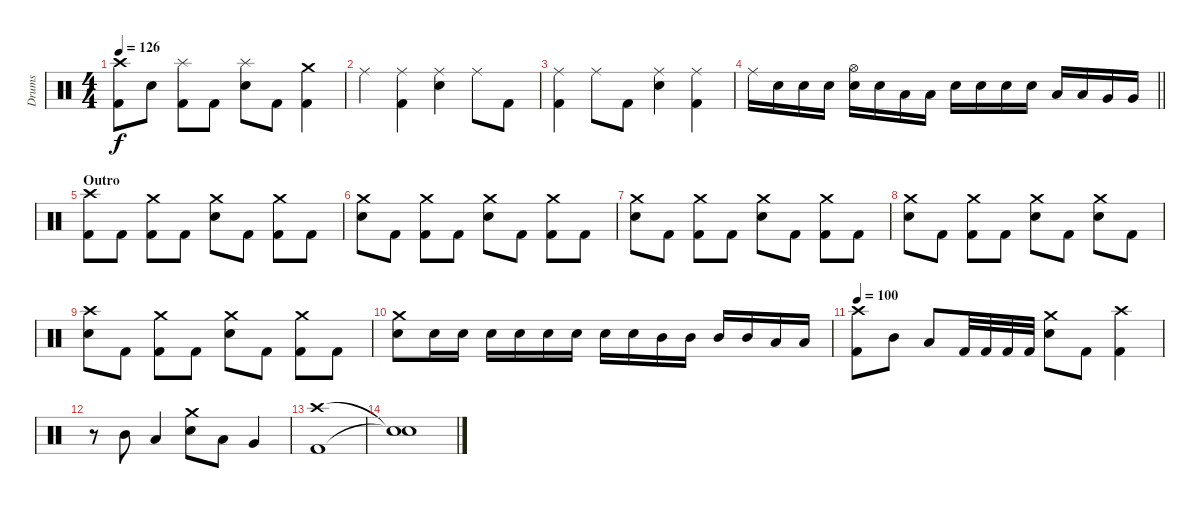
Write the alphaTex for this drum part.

\track ("Drums" "Drums") {instrument percussion}
\staff {score}
\articulation defaults
\ts (4 4)
\tempo 126
\clef neutral
\ks c
("Crash high (hit)" "Kick (hit) 2").8{dy f} "Snare (hit) 2".8 ("Splash (hit)" "Kick (hit) 2").8 "Kick (hit) 2".8 ("Splash (hit)" "Snare (hit) 2").8 "Kick (hit) 2".8 ("Crash medium (hit)" "Kick (hit) 2").4 |
"Ride (middle)".4 ("Ride (middle)" "Kick (hit) 2").4 ("Ride (middle)" "Snare (hit) 2").4 "Ride (middle)".8 "Kick (hit) 2".8 |
("Ride (middle)" "Kick (hit) 2").4 "Ride (middle)".8 "Kick (hit) 2".8 ("Ride (middle)" "Snare (hit) 2").4 ("Ride (middle)" "Kick (hit) 2").4 |
\barLineRight lightlight "Ride (middle)".16 "Snare (hit) 2".16 "Snare (hit) 2".16 "Snare (hit) 2".16
("Hi-Hat (open)" "Snare (hit) 2").16 "Snare (hit) 2".16 "Low Tom (hit)".16 "Low Tom (hit)".16 "Snare (hit) 2".16 "Snare (hit) 2".16 "Snare (hit) 2".16 "Snare (hit) 2".16 "Low Tom (hit)".16 "Low Tom (hit)".16 "Very Low Tom (hit)".16 "Very Low Tom (hit)".16 |
\section ("" "Outro")
("Crash high (hit)" "Kick (hit) 2").8 "Kick (hit) 2".8 ("Crash medium (hit)" "Kick (hit) 2").8 "Kick (hit) 2".8 ("Crash medium (hit)" "Snare (hit) 2").8 "Kick (hit) 2".8 ("Crash medium (hit)" "Kick (hit) 2").8 "Kick (hit) 2".8 |
("Crash medium (hit)" "Snare (hit) 2").8 "Kick (hit) 2".8 ("Crash medium (hit)" "Kick (hit) 2").8 "Kick (hit) 2".8 ("Crash medium (hit)" "Snare (hit) 2").8 "Kick (hit) 2".8 ("Crash medium (hit)" "Kick (hit) 2").8 "Kick (hit) 2".8 |
("Crash medium (hit)" "Snare (hit) 2").8 "Kick (hit) 2".8 ("Crash medium (hit)" "Kick (hit) 2").8 "Kick (hit) 2".8 ("Crash medium (hit)" "Snare (hit) 2").8 "Kick (hit) 2".8 ("Crash medium (hit)" "Kick (hit) 2").8 "Kick (hit) 2".8 |
("Crash medium (hit)" "Snare (hit) 2").8 "Kick (hit) 2".8 ("Crash medium (hit)" "Kick (hit) 2").8 "Kick (hit) 2".8 ("Crash medium (hit)" "Snare (hit) 2").8 "Kick (hit) 2".8 ("Crash medium (hit)" "Snare (hit) 2").8 "Kick (hit) 2".8 |
("Crash high (hit)" "Snare (hit) 2").8 "Kick (hit) 2".8 ("Crash medium (hit)" "Kick (hit) 2").8 "Kick (hit) 2".8 ("Crash medium (hit)" "Snare (hit) 2").8 "Kick (hit) 2".8 ("Crash medium (hit)" "Kick (hit) 2").8 "Kick (hit) 2".8 |
("Crash medium (hit)" "Snare (hit) 2").8 "Snare (hit) 2".16 "Snare (hit) 2".16 "Snare (hit) 2".16 "Snare (hit) 2".16 "Snare (hit) 2".16 "Snare (hit) 2".16 "Snare (hit) 2".16 "Snare (hit) 2".16 "Mid Tom (hit)".16 "Mid Tom (hit)".16 "Mid Tom (hit)".16 "Mid Tom (hit)".16 "Low Tom (hit)".16 "Low Tom (hit)".16 |
\tempo 100
("Crash high (hit)" "Kick (hit) 2").8 "Mid Tom (hit)".8 "Low Tom (hit)".8 "Kick (hit) 2".32 "Kick (hit) 2".32 "Kick (hit) 2".32 "Kick (hit) 2".32 ("Crash medium (hit)" "Snare (hit) 2").8 "Kick (hit) 2".8 ("Crash high (hit)" "Kick (hit) 2").4 |
r.8 "Mid Tom (hit)".8 "Low Tom (hit)".4 ("Crash medium (hit)" "Snare (hit) 2").8 "Low Tom (hit)".8 "Very Low Tom (hit)".4 |
("Crash high (hit)" "Kick (hit) 2").1 |
("Snare (hit)"{t} "Snare (hit)"{t}).1
